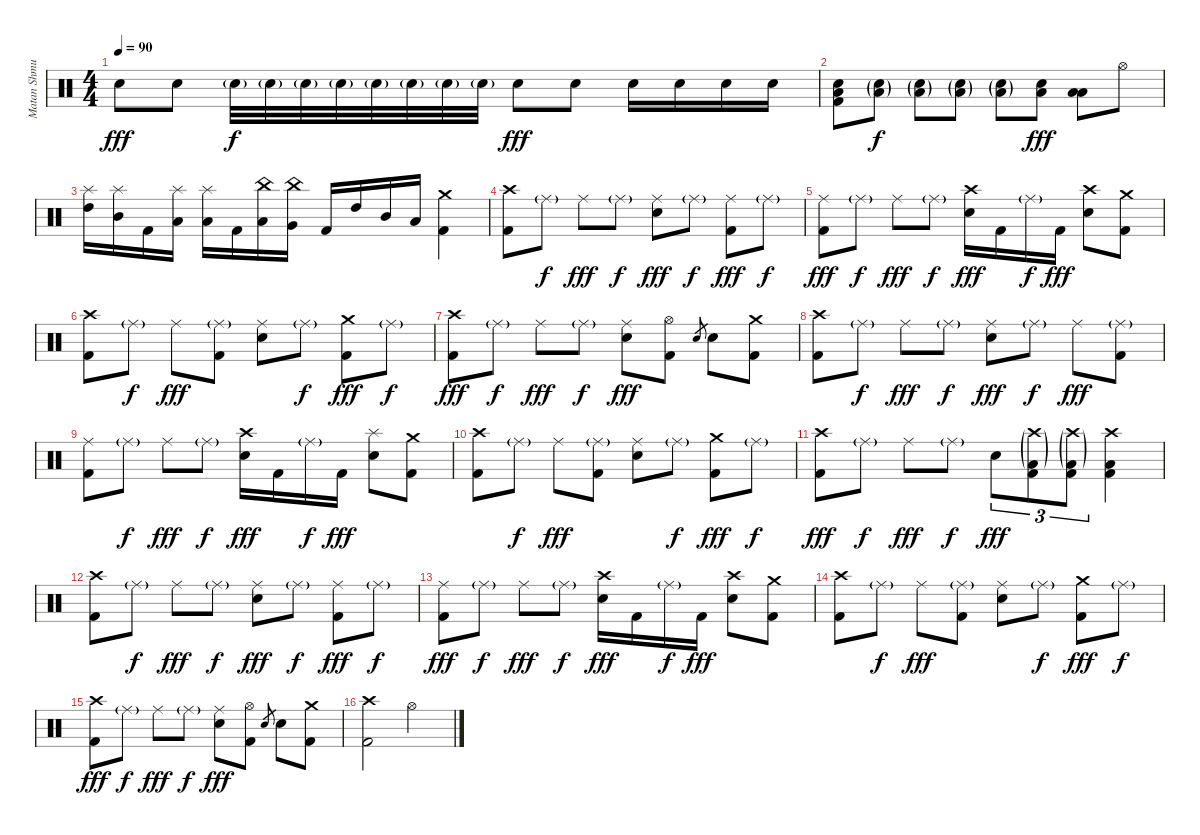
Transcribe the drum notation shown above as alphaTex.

\track ("Matan Shmuely " "Matan Shmu") {instrument percussion}
\staff {score}
\articulation defaults
\ts (4 4)
\tempo 90
\clef neutral
\ks c "Electric Snare (hit)".8{dy fff} "Electric Snare (hit)".8 "Electric Snare (hit)"{g}.32{dy f} "Electric Snare (hit)"{g}.32 "Electric Snare (hit)"{g}.32 "Electric Snare (hit)"{g}.32 "Electric Snare (hit)"{g}.32 "Electric Snare (hit)"{g}.32 "Electric Snare (hit)"{g}.32 "Electric Snare (hit)"{g}.32 "Electric Snare (hit)".8{dy fff} "Electric Snare (hit)".8 "Electric Snare (hit)".16 "Electric Snare (hit)".16 "Electric Snare (hit)".16 "Electric Snare (hit)".16
|
("Kick (hit) 2" "Electric Snare (hit)" "Low Floor Tom (hit)").8 ("Electric Snare (hit)"{g} "Low Floor Tom (hit)"{g}).8{dy f} ("Electric Snare (hit)"{g} "Low Floor Tom (hit)"{g}).8 ("Electric Snare (hit)"{g} "Low Floor Tom (hit)"{g}).8 ("Electric Snare (hit)"{g} "Low Floor Tom (hit)"{g}).8 ("Electric Snare (hit)" "Low Floor Tom (hit)").8{dy fff} ("Low Tom (hit)" "Low Floor Tom (hit)").8 "Hi-Hat (open)".8 |
("High Tom (hit)" "Splash (hit)").16 ("Mid Tom (hit)" "Splash (hit)").16 "Kick (hit) 2".16 ("Low Tom (hit)" "Splash (hit)").16 ("Low Tom (hit)" "Splash (hit)").16 "Kick (hit) 2".16 ("Low Tom (hit)" "China (hit)").16 ("Very Low Tom (hit)" "China (hit)").16 "Kick (hit) 2".16 "High Tom (hit)".16 "Mid Tom (hit)".16 "Low Tom (hit)".16 ("Kick (hit) 2" "Crash medium (hit)").4 |
("Kick (hit) 2" "Crash high (hit)").8 "Ride (middle)"{g}.8{dy f} "Ride (middle)".8{dy fff} "Ride (middle)"{g}.8{dy f} ("Electric Snare (hit)" "Ride (middle)").8{dy fff} "Ride (middle)"{g}.8{dy f} ("Kick (hit) 2" "Ride (middle)").8{dy fff} "Ride (middle)"{g}.8{dy f} |
("Kick (hit) 2" "Ride (middle)").8{dy fff} "Ride (middle)"{g}.8{dy f} "Ride (middle)".8{dy fff} "Ride (middle)"{g}.8{dy f} ("Electric Snare (hit)" "Crash high (hit)").16{dy fff} "Kick (hit) 2".16 "Ride (middle)"{g}.16{dy f} "Kick (hit) 2".16{dy fff} ("Electric Snare (hit)" "Crash high (hit)").8 ("Kick (hit) 2" "Crash medium (hit)").8 |
("Kick (hit) 2" "Crash high (hit)").8 "Ride (middle)"{g}.8{dy f} "Ride (middle)".8{dy fff} ("Kick (hit) 2" "Ride (middle)"{g}).8 ("Electric Snare (hit)" "Ride (middle)").8 "Ride (middle)"{g}.8{dy f} ("Kick (hit) 2" "Crash medium (hit)").8{dy fff} "Ride (middle)"{g}.8{dy f} |
("Kick (hit) 2" "Crash high (hit)").8{dy fff} "Ride (middle)"{g}.8{dy f} "Ride (middle)".8{dy fff} "Ride (middle)"{g}.8{dy f} ("Electric Snare (hit)" "Ride (middle)").8{dy fff} ("Kick (hit) 2" "Hi-Hat (open)").8 "Electric Snare (hit)".8{gr} "Electric Snare (hit)".8 ("Kick (hit) 2" "Crash medium (hit)").8 |
("Kick (hit) 2" "Crash high (hit)").8 "Ride (middle)"{g}.8{dy f} "Ride (middle)".8{dy fff} "Ride (middle)"{g}.8{dy f} ("Electric Snare (hit)" "Ride (middle)").8{dy fff} "Ride (middle)"{g}.8{dy f} "Ride (middle)".8{dy fff} ("Kick (hit) 2" "Ride (middle)"{g}).8 |
("Kick (hit) 2" "Ride (middle)").8 "Ride (middle)"{g}.8{dy f} "Ride (middle)".8{dy fff} "Ride (middle)"{g}.8{dy f} ("Electric Snare (hit)" "Crash high (hit)").16{dy fff} "Kick (hit) 2".16 "Ride (middle)"{g}.16{dy f} "Kick (hit) 2".16{dy fff} ("Electric Snare (hit)" "Splash (hit)").8 ("Kick (hit) 2" "Crash medium (hit)").8 |
("Kick (hit) 2" "Crash high (hit)").8 "Ride (middle)"{g}.8{dy f} "Ride (middle)".8{dy fff} ("Kick (hit) 2" "Ride (middle)"{g}).8 ("Electric Snare (hit)" "Ride (middle)").8 "Ride (middle)"{g}.8{dy f} ("Kick (hit) 2" "Crash medium (hit)").8{dy fff} "Ride (middle)"{g}.8{dy f} |
("Kick (hit) 2" "Crash high (hit)").8{dy fff} "Ride (middle)"{g}.8{dy f} "Ride (middle)".8{dy fff} "Ride (middle)"{g}.8{dy f} "Electric Snare (hit)".8{tu (3 2) dy fff} ("Kick (hit) 2" "Low Tom (hit)"{g} "Crash high (hit)"{g}).8{tu (3 2)} ("Kick (hit) 2" "Low Tom (hit)"{g} "Crash high (hit)"{g}).8{tu (3 2)} ("Kick (hit) 2" "Low Tom (hit)" "Crash high (hit)").4 |
("Kick (hit) 2" "Crash high (hit)").8 "Ride (middle)"{g}.8{dy f} "Ride (middle)".8{dy fff} "Ride (middle)"{g}.8{dy f} ("Electric Snare (hit)" "Ride (middle)").8{dy fff} "Ride (middle)"{g}.8{dy f} ("Kick (hit) 2" "Ride (middle)").8{dy fff} "Ride (middle)"{g}.8{dy f} |
("Kick (hit) 2" "Ride (middle)").8{dy fff} "Ride (middle)"{g}.8{dy f} "Ride (middle)".8{dy fff} "Ride (middle)"{g}.8{dy f} ("Electric Snare (hit)" "Crash high (hit)").16{dy fff} "Kick (hit) 2".16 "Ride (middle)"{g}.16{dy f} "Kick (hit) 2".16{dy fff} ("Electric Snare (hit)" "Crash high (hit)").8 ("Kick (hit) 2" "Crash medium (hit)").8 |
("Kick (hit) 2" "Crash high (hit)").8 "Ride (middle)"{g}.8{dy f} "Ride (middle)".8{dy fff} ("Kick (hit) 2" "Ride (middle)"{g}).8 ("Electric Snare (hit)" "Ride (middle)").8 "Ride (middle)"{g}.8{dy f} ("Kick (hit) 2" "Crash medium (hit)").8{dy fff} "Ride (middle)"{g}.8{dy f} |
("Kick (hit) 2" "Crash high (hit)").8{dy fff} "Ride (middle)"{g}.8{dy f} "Ride (middle)".8{dy fff} "Ride (middle)"{g}.8{dy f} ("Electric Snare (hit)" "Ride (middle)").8{dy fff} ("Kick (hit) 2" "Hi-Hat (open)").8 "Electric Snare (hit)".8{gr} "Electric Snare (hit)".8 ("Kick (hit) 2" "Crash medium (hit)").8 |
("Kick (hit) 2" "Crash high (hit)").2 "Hi-Hat (open)".2
